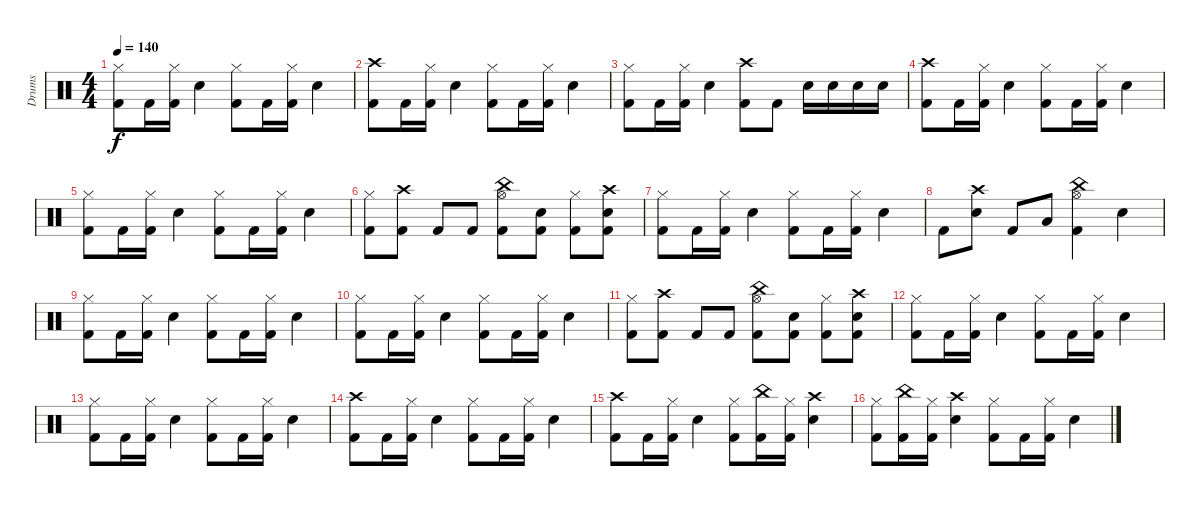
\track ("Drums" "Drums") {instrument percussion}
\staff {score}
\articulation defaults
\ts (4 4)
\tempo 140
\clef neutral
\ks c
("Hi-Hat (closed)" "Kick (hit) 2").8{dy f} "Kick (hit) 2".16 ("Hi-Hat (closed)" "Kick (hit) 2").16 "Electric Snare (hit)".4 ("Hi-Hat (closed)" "Kick (hit) 2").8 "Kick (hit) 2".16 ("Hi-Hat (closed)" "Kick (hit) 2").16 "Electric Snare (hit)".4 |
("Crash high (hit)" "Kick (hit) 2").8 "Kick (hit) 2".16 ("Hi-Hat (closed)" "Kick (hit) 2").16 "Electric Snare (hit)".4 ("Hi-Hat (closed)" "Kick (hit) 2").8 "Kick (hit) 2".16 ("Hi-Hat (closed)" "Kick (hit) 2").16 "Electric Snare (hit)".4 |
("Hi-Hat (closed)" "Kick (hit) 2").8 "Kick (hit) 2".16 ("Hi-Hat (closed)" "Kick (hit) 2").16 "Electric Snare (hit)".4 ("Crash high (hit)" "Kick (hit) 2").8 "Kick (hit) 2".8 "Electric Snare (hit)".16 "Electric Snare (hit)".16 "Electric Snare (hit)".16 "Electric Snare (hit)".16 |
("Crash high (hit)" "Kick (hit) 2").8 "Kick (hit) 2".16 ("Hi-Hat (closed)" "Kick (hit) 2").16 "Electric Snare (hit)".4 ("Hi-Hat (closed)" "Kick (hit) 2").8 "Kick (hit) 2".16 ("Hi-Hat (closed)" "Kick (hit) 2").16 "Electric Snare (hit)".4 |
("Hi-Hat (closed)" "Kick (hit) 2").8 "Kick (hit) 2".16 ("Hi-Hat (closed)" "Kick (hit) 2").16 "Electric Snare (hit)".4 ("Hi-Hat (closed)" "Kick (hit) 2").8 "Kick (hit) 2".16 ("Hi-Hat (closed)" "Kick (hit) 2").16 "Electric Snare (hit)".4 |
("Hi-Hat (closed)" "Kick (hit) 2").8 ("Crash high (hit)" "Kick (hit) 2").8 "Kick (hit) 2".8 "Kick (hit) 2".8 ("China (hit)" "Hi-Hat (open)" "Kick (hit) 2").8 ("Electric Snare (hit)" "Kick (hit) 2").8 ("Hi-Hat (closed)" "Kick (hit) 2").8 ("Crash high (hit)" "Electric Snare (hit)" "Kick (hit) 2").8 |
("Hi-Hat (closed)" "Kick (hit) 2").8 "Kick (hit) 2".16 ("Hi-Hat (closed)" "Kick (hit) 2").16 "Electric Snare (hit)".4 ("Hi-Hat (closed)" "Kick (hit) 2").8 "Kick (hit) 2".16 ("Hi-Hat (closed)" "Kick (hit) 2").16 "Electric Snare (hit)".4 |
"Kick (hit) 2".8 ("Crash high (hit)" "Electric Snare (hit)").8 "Kick (hit) 2".8 "Low Floor Tom (hit)".8 ("China (hit)" "Hi-Hat (open)" "Kick (hit) 2").4 "Electric Snare (hit)".4 |
("Hi-Hat (closed)" "Kick (hit) 2").8 "Kick (hit) 2".16 ("Hi-Hat (closed)" "Kick (hit) 2").16 "Electric Snare (hit)".4 ("Hi-Hat (closed)" "Kick (hit) 2").8 "Kick (hit) 2".16 ("Hi-Hat (closed)" "Kick (hit) 2").16 "Electric Snare (hit)".4 |
("Hi-Hat (closed)" "Kick (hit) 2").8 "Kick (hit) 2".16 ("Hi-Hat (closed)" "Kick (hit) 2").16 "Electric Snare (hit)".4 ("Hi-Hat (closed)" "Kick (hit) 2").8 "Kick (hit) 2".16 ("Hi-Hat (closed)" "Kick (hit) 2").16 "Electric Snare (hit)".4 |
("Hi-Hat (closed)" "Kick (hit) 2").8 ("Crash high (hit)" "Kick (hit) 2").8 "Kick (hit) 2".8 "Kick (hit) 2".8 ("China (hit)" "Hi-Hat (open)" "Kick (hit) 2").8 ("Electric Snare (hit)" "Kick (hit) 2").8 ("Hi-Hat (closed)" "Kick (hit) 2").8 ("Crash high (hit)" "Electric Snare (hit)" "Kick (hit) 2").8 |
("Hi-Hat (closed)" "Kick (hit) 2").8 "Kick (hit) 2".16 ("Hi-Hat (closed)" "Kick (hit) 2").16 "Electric Snare (hit)".4 ("Hi-Hat (closed)" "Kick (hit) 2").8 "Kick (hit) 2".16 ("Hi-Hat (closed)" "Kick (hit) 2").16 "Electric Snare (hit)".4 |
("Hi-Hat (closed)" "Kick (hit) 2").8 "Kick (hit) 2".16 ("Hi-Hat (closed)" "Kick (hit) 2").16 "Electric Snare (hit)".4 ("Hi-Hat (closed)" "Kick (hit) 2").8 "Kick (hit) 2".16 ("Hi-Hat (closed)" "Kick (hit) 2").16 "Electric Snare (hit)".4 |
("Crash high (hit)" "Kick (hit) 2").8 "Kick (hit) 2".16 ("Hi-Hat (closed)" "Kick (hit) 2").16 "Electric Snare (hit)".4 ("Hi-Hat (closed)" "Kick (hit) 2").8 "Kick (hit) 2".16 ("Hi-Hat (closed)" "Kick (hit) 2").16 "Electric Snare (hit)".4 |
("Crash high (hit)" "Kick (hit) 2").8 "Kick (hit) 2".16 ("Hi-Hat (closed)" "Kick (hit) 2").16 "Electric Snare (hit)".4 ("Hi-Hat (closed)" "Kick (hit) 2").8 ("China (hit)" "Kick (hit) 2").16 ("Hi-Hat (closed)" "Kick (hit) 2").16 ("Crash high (hit)" "Electric Snare (hit)").4 |
("Hi-Hat (closed)" "Kick (hit) 2").8 ("China (hit)" "Kick (hit) 2").16 ("Hi-Hat (closed)" "Kick (hit) 2").16 ("Crash high (hit)" "Electric Snare (hit)").4 ("Hi-Hat (closed)" "Kick (hit) 2").8 "Kick (hit) 2".16 ("Hi-Hat (closed)" "Kick (hit) 2").16 "Electric Snare (hit)".4
